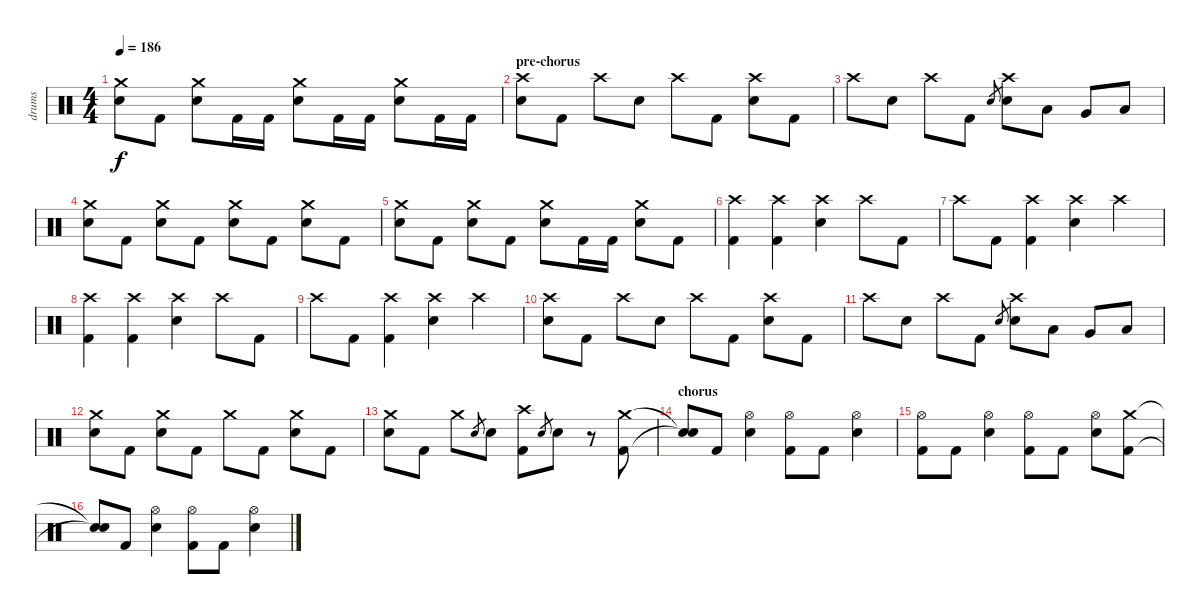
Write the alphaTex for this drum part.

\track ("drums" "drums") {instrument percussion}
\staff {score}
\articulation defaults
\ts (4 4)
\tempo 186
\clef neutral
\ks c
("Crash medium (hit)" "Electric Snare (hit)").8{dy f} "Kick (hit) 2".8 ("Crash medium (hit)" "Electric Snare (hit)").8 "Kick (hit) 2".16 "Kick (hit) 2".16 ("Crash medium (hit)" "Electric Snare (hit)").8 "Kick (hit) 2".16 "Kick (hit) 2".16 ("Crash medium (hit)" "Electric Snare (hit)").8 "Kick (hit) 2".16 "Kick (hit) 2".16 |
\section ("" "pre-chorus")
("Crash high (hit)" "Electric Snare (hit)").8 "Kick (hit) 2".8 "Crash high (hit)".8 "Electric Snare (hit)".8 "Crash high (hit)".8 "Kick (hit) 2".8 ("Crash high (hit)" "Electric Snare (hit)").8 "Kick (hit) 2".8 |
"Crash high (hit)".8 "Electric Snare (hit)".8 "Crash high (hit)".8 "Kick (hit) 2".8 "Electric Snare (hit)".8{gr} ("Crash high (hit)" "Electric Snare (hit)").8 "Low Tom (hit)".8 "Very Low Tom (hit)".8 "Low Floor Tom (hit)".8 |
("Crash medium (hit)" "Electric Snare (hit)").8 "Kick (hit) 2".8 ("Crash medium (hit)" "Electric Snare (hit)").8 "Kick (hit) 2".8 ("Crash medium (hit)" "Electric Snare (hit)").8 "Kick (hit) 2".8 ("Crash medium (hit)" "Electric Snare (hit)").8 "Kick (hit) 2".8 |
("Crash medium (hit)" "Electric Snare (hit)").8 "Kick (hit) 2".8 ("Crash medium (hit)" "Electric Snare (hit)").8 "Kick (hit) 2".8 ("Crash medium (hit)" "Electric Snare (hit)").8 "Kick (hit) 2".16 "Kick (hit) 2".16 ("Crash medium (hit)" "Electric Snare (hit)").8 "Kick (hit) 2".8 |
("Crash high (hit)" "Kick (hit) 2").4 ("Crash high (hit)" "Kick (hit) 2").4 ("Crash high (hit)" "Electric Snare (hit)").4 "Crash high (hit)".8 "Kick (hit) 2".8 |
"Crash high (hit)".8 "Kick (hit) 2".8 ("Crash high (hit)" "Kick (hit) 2").4 ("Crash high (hit)" "Electric Snare (hit)").4 "Crash high (hit)".4 |
("Crash high (hit)" "Kick (hit) 2").4 ("Crash high (hit)" "Kick (hit) 2").4 ("Crash high (hit)" "Electric Snare (hit)").4 "Crash high (hit)".8 "Kick (hit) 2".8 |
"Crash high (hit)".8 "Kick (hit) 2".8 ("Crash high (hit)" "Kick (hit) 2").4 ("Crash high (hit)" "Electric Snare (hit)").4 "Crash high (hit)".4 |
("Crash high (hit)" "Electric Snare (hit)").8 "Kick (hit) 2".8 "Crash high (hit)".8 "Electric Snare (hit)".8 "Crash high (hit)".8 "Kick (hit) 2".8 ("Crash high (hit)" "Electric Snare (hit)").8 "Kick (hit) 2".8 |
"Crash high (hit)".8 "Electric Snare (hit)".8 "Crash high (hit)".8 "Kick (hit) 2".8 "Electric Snare (hit)".8{gr} ("Crash high (hit)" "Electric Snare (hit)").8 "Low Tom (hit)".8 "Very Low Tom (hit)".8 "Low Floor Tom (hit)".8 |
("Crash medium (hit)" "Electric Snare (hit)").8 "Kick (hit) 2".8 ("Crash medium (hit)" "Electric Snare (hit)").8 "Kick (hit) 2".8 "Crash medium (hit)".8 "Kick (hit) 2".8 ("Crash medium (hit)" "Electric Snare (hit)").8 "Kick (hit) 2".8 |
("Crash medium (hit)" "Electric Snare (hit)").8 "Kick (hit) 2".8 "Crash medium (hit)".8 "Electric Snare (hit)".8{gr} "Electric Snare (hit)".8 ("Crash high (hit)" "Kick (hit) 2").8 "Electric Snare (hit)".8{gr} "Electric Snare (hit)".8 r.8 ("Crash medium (hit)" "Kick (hit) 2").8 |
\section ("" "chorus")
("Snare (hit)"{t} "Snare (hit)"{t}).8 "Kick (hit) 2".8 ("Hi-Hat (open)" "Electric Snare (hit)").4 ("Hi-Hat (open)" "Kick (hit) 2").8 "Kick (hit) 2".8 ("Hi-Hat (open)" "Electric Snare (hit)").4 |
("Hi-Hat (open)" "Kick (hit) 2").8 "Kick (hit) 2".8 ("Hi-Hat (open)" "Electric Snare (hit)").4 ("Hi-Hat (open)" "Kick (hit) 2").8 "Kick (hit) 2".8 ("Hi-Hat (open)" "Electric Snare (hit)").8 ("Crash medium (hit)" "Kick (hit) 2").8 |
("Snare (hit)"{t} "Snare (hit)"{t}).8 "Kick (hit) 2".8 ("Hi-Hat (open)" "Electric Snare (hit)").4 ("Hi-Hat (open)" "Kick (hit) 2").8 "Kick (hit) 2".8 ("Hi-Hat (open)" "Electric Snare (hit)").4
